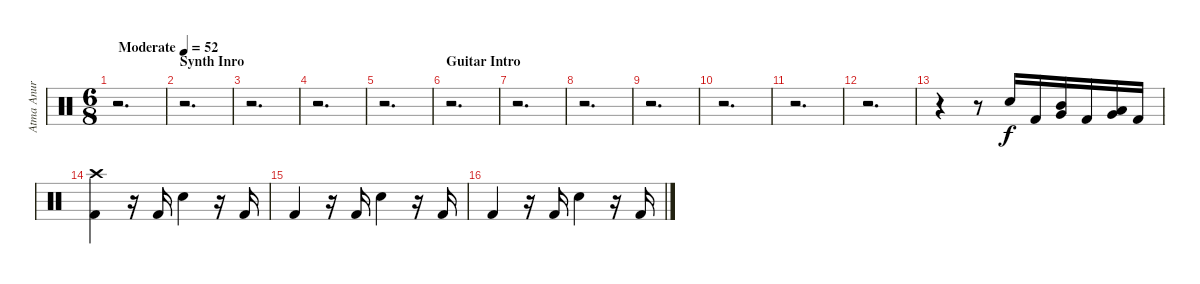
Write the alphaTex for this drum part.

\track ("Atma Anur " "Atma Anur ") {instrument percussion}
\staff {score}
\articulation defaults
\ts (6 8)
\tempo (52 "Moderate")
\clef neutral
\ks c
r.2{d dy f} |
\section ("" "Synth Inro")
r.2{d} |
r.2{d} |
r.2{d} |
r.2{d} |
\section ("" "Guitar Intro")
r.2{d} |
r.2{d} |
r.2{d} |
r.2{d} |
r.2{d} |
r.2{d} |
r.2{d} |
r.4 r.8 "Snare (hit) 2".16 "Kick (hit) 2".16 ("Mid Tom (hit)" "Very Low Tom (hit)").16 "Kick (hit) 2".16 ("Very Low Tom (hit)" "Low Floor Tom (hit)").16 "Kick (hit) 2".16 |
("Crash high (hit)" "Kick (hit) 2").4 r.16 "Kick (hit) 2".16 "Snare (hit) 2".4 r.16 "Kick (hit) 2".16 |
"Kick (hit) 2".4 r.16 "Kick (hit) 2".16 "Snare (hit) 2".4 r.16 "Kick (hit) 2".16 |
"Kick (hit) 2".4 r.16 "Kick (hit) 2".16 "Snare (hit) 2".4 r.16 "Kick (hit) 2".16
